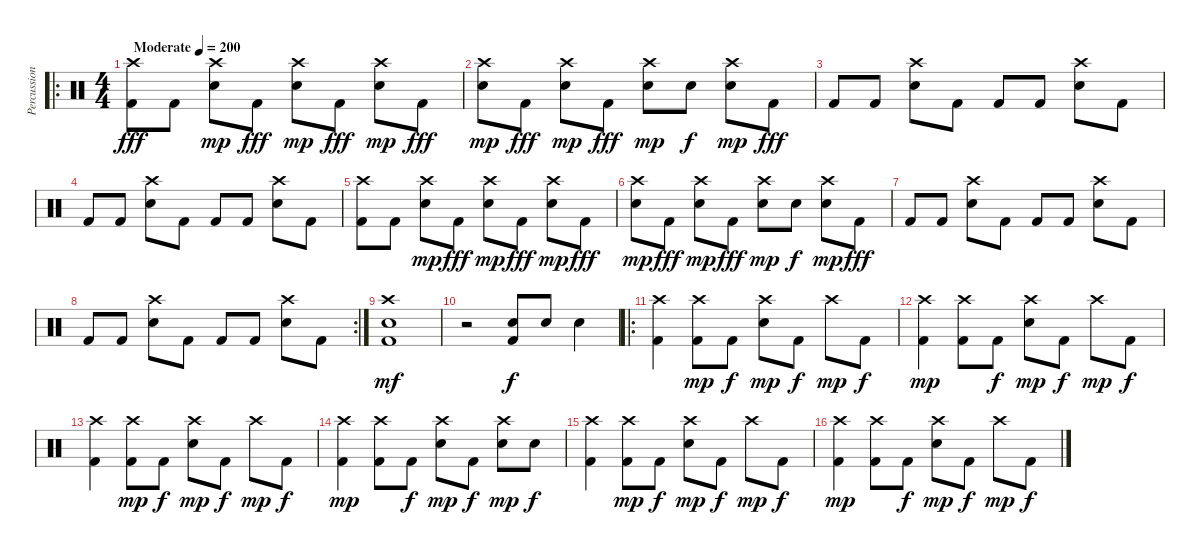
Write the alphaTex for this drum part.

\track ("Percussion" "Percussion") {instrument percussion}
\staff {score}
\articulation defaults
\ro
\ts (4 4)
\tempo (200 "Moderate")
\clef neutral
\ks c
("Crash high (hit)" "Kick (hit) 2").8{dy fff} "Kick (hit) 2".8 ("Crash high (hit)" "Electric Snare (hit)").8{dy mp} "Kick (hit) 2".8{dy fff} ("Crash high (hit)" "Electric Snare (hit)").8{dy mp} "Kick (hit) 2".8{dy fff} ("Crash high (hit)" "Electric Snare (hit)").8{dy mp} "Kick (hit) 2".8{dy fff} |
("Crash high (hit)" "Electric Snare (hit)").8{dy mp} "Kick (hit) 2".8{dy fff} ("Crash high (hit)" "Electric Snare (hit)").8{dy mp} "Kick (hit) 2".8{dy fff} ("Crash high (hit)" "Electric Snare (hit)").8{dy mp} "Electric Snare (hit)".8{dy f} ("Crash high (hit)" "Electric Snare (hit)").8{dy mp} "Kick (hit) 2".8{dy fff} |
"Kick (hit) 2".8 "Kick (hit) 2".8 ("Crash high (hit)" "Electric Snare (hit)").8 "Kick (hit) 2".8 "Kick (hit) 2".8 "Kick (hit) 2".8 ("Crash high (hit)" "Electric Snare (hit)").8 "Kick (hit) 2".8 |
"Kick (hit) 2".8 "Kick (hit) 2".8 ("Crash high (hit)" "Electric Snare (hit)").8 "Kick (hit) 2".8 "Kick (hit) 2".8 "Kick (hit) 2".8 ("Crash high (hit)" "Electric Snare (hit)").8 "Kick (hit) 2".8 |
("Crash high (hit)" "Kick (hit) 2").8 "Kick (hit) 2".8 ("Crash high (hit)" "Electric Snare (hit)").8{dy mp} "Kick (hit) 2".8{dy fff} ("Crash high (hit)" "Electric Snare (hit)").8{dy mp} "Kick (hit) 2".8{dy fff} ("Crash high (hit)" "Electric Snare (hit)").8{dy mp} "Kick (hit) 2".8{dy fff} |
("Crash high (hit)" "Electric Snare (hit)").8{dy mp} "Kick (hit) 2".8{dy fff} ("Crash high (hit)" "Electric Snare (hit)").8{dy mp} "Kick (hit) 2".8{dy fff} ("Crash high (hit)" "Electric Snare (hit)").8{dy mp} "Electric Snare (hit)".8{dy f} ("Crash high (hit)" "Electric Snare (hit)").8{dy mp} "Kick (hit) 2".8{dy fff} |
"Kick (hit) 2".8 "Kick (hit) 2".8 ("Crash high (hit)" "Electric Snare (hit)").8 "Kick (hit) 2".8 "Kick (hit) 2".8 "Kick (hit) 2".8 ("Crash high (hit)" "Electric Snare (hit)").8 "Kick (hit) 2".8 |
\rc 2 "Kick (hit) 2".8 "Kick (hit) 2".8
("Crash high (hit)" "Electric Snare (hit)").8 "Kick (hit) 2".8 "Kick (hit) 2".8 "Kick (hit) 2".8 ("Crash high (hit)" "Electric Snare (hit)").8 "Kick (hit) 2".8 |
("Crash high (hit)" "Electric Snare (hit)" "Kick (hit) 2").1{dy mf} |
r.2 ("Electric Snare (hit)" "Kick (hit) 2").8{dy f} "Electric Snare (hit)".8 "Electric Snare (hit)".4 |
\ro
("Crash high (hit)" "Kick (hit) 2").4 ("Crash high (hit)" "Kick (hit) 2").8{dy mp} "Kick (hit) 2".8{dy f} ("Crash high (hit)" "Electric Snare (hit)").8{dy mp} "Kick (hit) 2".8{dy f} "Crash high (hit)".8{dy mp} "Kick (hit) 2".8{dy f} |
("Crash high (hit)" "Kick (hit) 2").4{dy mp} ("Crash high (hit)" "Kick (hit) 2").8 "Kick (hit) 2".8{dy f} ("Crash high (hit)" "Electric Snare (hit)").8{dy mp} "Kick (hit) 2".8{dy f} "Crash high (hit)".8{dy mp} "Kick (hit) 2".8{dy f} |
("Crash high (hit)" "Kick (hit) 2").4 ("Crash high (hit)" "Kick (hit) 2").8{dy mp} "Kick (hit) 2".8{dy f} ("Crash high (hit)" "Electric Snare (hit)").8{dy mp} "Kick (hit) 2".8{dy f} "Crash high (hit)".8{dy mp} "Kick (hit) 2".8{dy f} |
("Crash high (hit)" "Kick (hit) 2").4{dy mp} ("Crash high (hit)" "Kick (hit) 2").8 "Kick (hit) 2".8{dy f} ("Crash high (hit)" "Electric Snare (hit)").8{dy mp} "Kick (hit) 2".8{dy f} ("Crash high (hit)" "Electric Snare (hit)").8{dy mp} "Electric Snare (hit)".8{dy f} |
("Crash high (hit)" "Kick (hit) 2").4 ("Crash high (hit)" "Kick (hit) 2").8{dy mp} "Kick (hit) 2".8{dy f} ("Crash high (hit)" "Electric Snare (hit)").8{dy mp} "Kick (hit) 2".8{dy f} "Crash high (hit)".8{dy mp} "Kick (hit) 2".8{dy f} |
("Crash high (hit)" "Kick (hit) 2").4{dy mp} ("Crash high (hit)" "Kick (hit) 2").8 "Kick (hit) 2".8{dy f} ("Crash high (hit)" "Electric Snare (hit)").8{dy mp} "Kick (hit) 2".8{dy f} "Crash high (hit)".8{dy mp} "Kick (hit) 2".8{dy f}
